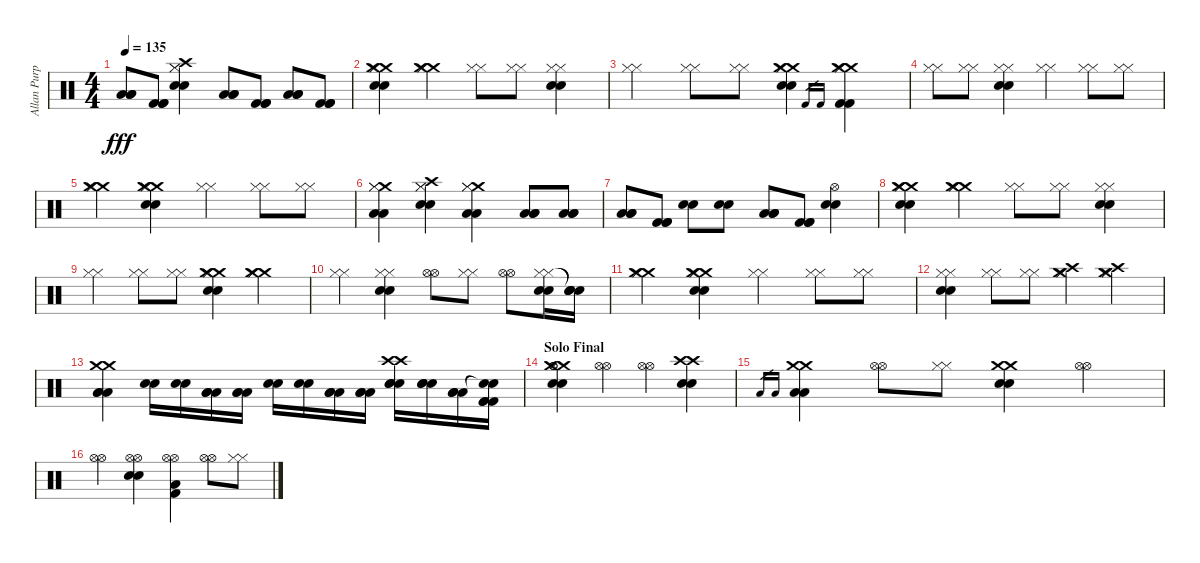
\track ("Allan Purple" "Allan Purp") {instrument percussion}
\staff {score}
\articulation defaults
\ts (4 4)
\tempo 135
\clef neutral
\ks c
("Low Tom (hit)" "Low Tom (hit)" "Low Tom (hit)").8{dy fff} ("Kick (hit) 2" "Kick (hit) 2" "Kick (hit) 2").8 ("Crash high (hit)" "Hi-Hat (closed)" "Hi-Hat (closed)" "Electric Snare (hit)" "Electric Snare (hit)").4 ("Low Tom (hit)" "Low Tom (hit)" "Low Tom (hit)").8 ("Kick (hit) 2" "Kick (hit) 2" "Kick (hit) 2").8 ("Low Tom (hit)" "Low Tom (hit)" "Low Tom (hit)").8 ("Kick (hit) 2" "Kick (hit) 2" "Kick (hit) 2").8 |
("Crash medium (hit)" "Crash medium (hit)" "Hi-Hat (closed)" "Hi-Hat (closed)" "Electric Snare (hit)" "Electric Snare (hit)").4 ("Crash medium (hit)" "Crash medium (hit)" "Hi-Hat (closed)" "Hi-Hat (closed)").4 ("Hi-Hat (closed)" "Hi-Hat (closed)").8 ("Hi-Hat (closed)" "Hi-Hat (closed)").8 ("Hi-Hat (closed)" "Hi-Hat (closed)" "Electric Snare (hit)" "Electric Snare (hit)").4 |
("Hi-Hat (closed)" "Hi-Hat (closed)").4 ("Hi-Hat (closed)" "Hi-Hat (closed)").8 ("Hi-Hat (closed)" "Hi-Hat (closed)").8 ("Crash medium (hit)" "Crash medium (hit)" "Hi-Hat (closed)" "Hi-Hat (closed)" "Electric Snare (hit)" "Electric Snare (hit)").4 "Kick (hit) 2".16{gr} "Kick (hit) 2".16{gr} ("Crash medium (hit)" "Crash medium (hit)" "Hi-Hat (closed)" "Hi-Hat (closed)" "Kick (hit) 2" "Kick (hit) 2").4 |
("Hi-Hat (closed)" "Hi-Hat (closed)").8 ("Hi-Hat (closed)" "Hi-Hat (closed)").8 ("Hi-Hat (closed)" "Hi-Hat (closed)" "Electric Snare (hit)" "Electric Snare (hit)").4 ("Hi-Hat (closed)" "Hi-Hat (closed)").4 ("Hi-Hat (closed)" "Hi-Hat (closed)").8 ("Hi-Hat (closed)" "Hi-Hat (closed)").8 |
("Crash medium (hit)" "Crash medium (hit)" "Hi-Hat (closed)" "Hi-Hat (closed)").4 ("Crash medium (hit)" "Crash medium (hit)" "Hi-Hat (closed)" "Hi-Hat (closed)" "Electric Snare (hit)" "Electric Snare (hit)").4 ("Hi-Hat (closed)" "Hi-Hat (closed)").4 ("Hi-Hat (closed)" "Hi-Hat (closed)").8 ("Hi-Hat (closed)" "Hi-Hat (closed)").8 |
("Crash medium (hit)" "Hi-Hat (closed)" "Hi-Hat (closed)" "Low Tom (hit)" "Low Tom (hit)").4 ("Crash high (hit)" "Hi-Hat (closed)" "Hi-Hat (closed)" "Electric Snare (hit)" "Electric Snare (hit)").4 ("Crash medium (hit)" "Hi-Hat (closed)" "Hi-Hat (closed)" "Low Tom (hit)" "Low Tom (hit)").4 ("Low Floor Tom (hit)" "Low Floor Tom (hit)" "Low Floor Tom (hit)").8 ("Low Floor Tom (hit)" "Low Floor Tom (hit)" "Low Floor Tom (hit)").8 |
("Low Tom (hit)" "Low Tom (hit)" "Low Tom (hit)").8 ("Kick (hit) 2" "Kick (hit) 2" "Kick (hit) 2").8 ("Electric Snare (hit)" "Electric Snare (hit)").8 ("Electric Snare (hit)" "Electric Snare (hit)").8 ("Low Tom (hit)" "Low Tom (hit)" "Low Tom (hit)").8 ("Kick (hit) 2" "Kick (hit) 2" "Kick (hit) 2").8 ("Hi-Hat (open)" "Electric Snare (hit)" "Electric Snare (hit)").4 |
("Crash medium (hit)" "Crash medium (hit)" "Hi-Hat (closed)" "Hi-Hat (closed)" "Electric Snare (hit)" "Electric Snare (hit)").4 ("Crash medium (hit)" "Crash medium (hit)" "Hi-Hat (closed)" "Hi-Hat (closed)").4 ("Hi-Hat (closed)" "Hi-Hat (closed)").8 ("Hi-Hat (closed)" "Hi-Hat (closed)").8 ("Hi-Hat (closed)" "Hi-Hat (closed)" "Electric Snare (hit)" "Electric Snare (hit)").4 |
("Hi-Hat (closed)" "Hi-Hat (closed)").4 ("Hi-Hat (closed)" "Hi-Hat (closed)").8 ("Hi-Hat (closed)" "Hi-Hat (closed)").8 ("Crash medium (hit)" "Crash medium (hit)" "Hi-Hat (closed)" "Hi-Hat (closed)" "Electric Snare (hit)" "Electric Snare (hit)").4 ("Crash medium (hit)" "Crash medium (hit)" "Hi-Hat (closed)" "Hi-Hat (closed)").4 |
("Hi-Hat (closed)" "Hi-Hat (closed)").4 ("Hi-Hat (closed)" "Hi-Hat (closed)" "Electric Snare (hit)" "Electric Snare (hit)").4 ("Hi-Hat (open)" "Hi-Hat (open)").8 ("Hi-Hat (closed)" "Hi-Hat (closed)").8 ("Hi-Hat (open)" "Hi-Hat (open)").8 ("Hi-Hat (closed)" "Hi-Hat (closed)" "Electric Snare (hit)" "Electric Snare (hit)").16 ("Snare (hit)"{t} "Snare (hit)"{t} "Electric Snare (hit)" "Electric Snare (hit)").16 |
("Crash medium (hit)" "Crash medium (hit)" "Hi-Hat (closed)" "Hi-Hat (closed)").4 ("Crash medium (hit)" "Crash medium (hit)" "Hi-Hat (closed)" "Hi-Hat (closed)" "Electric Snare (hit)" "Electric Snare (hit)").4 ("Hi-Hat (closed)" "Hi-Hat (closed)").4 ("Hi-Hat (closed)" "Hi-Hat (closed)").8 ("Hi-Hat (closed)" "Hi-Hat (closed)").8 |
("Hi-Hat (closed)" "Hi-Hat (closed)" "Electric Snare (hit)" "Electric Snare (hit)").4 ("Hi-Hat (closed)" "Hi-Hat (closed)").8 ("Hi-Hat (closed)" "Hi-Hat (closed)").8 ("Crash high (hit)" "Crash medium (hit)" "Hi-Hat (closed)" "Hi-Hat (closed)").4 ("Crash high (hit)" "Crash medium (hit)" "Hi-Hat (closed)" "Hi-Hat (closed)").4 |
("Crash medium (hit)" "Crash medium (hit)" "Low Tom (hit)" "Low Tom (hit)" "Low Tom (hit)").4 ("Electric Snare (hit)" "Electric Snare (hit)").16 ("Electric Snare (hit)" "Electric Snare (hit)").16 ("Low Tom (hit)" "Low Tom (hit)" "Low Tom (hit)").16 ("Low Tom (hit)" "Low Tom (hit)" "Low Tom (hit)").16 ("Electric Snare (hit)" "Electric Snare (hit)").16 ("Electric Snare (hit)" "Electric Snare (hit)").16 ("Low Tom (hit)" "Low Tom (hit)" "Low Tom (hit)").16 ("Low Tom (hit)" "Low Tom (hit)" "Low Tom (hit)").16 ("Crash high (hit)" "Crash high (hit)" "Electric Snare (hit)" "Electric Snare (hit)" "Electric Snare (hit)").16 ("Electric Snare (hit)" "Electric Snare (hit)" "Electric Snare (hit)").16 ("Low Tom (hit)" "Low Tom (hit)" "Low Tom (hit)").16 ("Snare (hit)"{t} "Snare (hit)"{t} "Kick (hit) 2" "Kick (hit) 2" "Kick (hit) 2").16 |
\section ("" "Solo Final")
("Crash medium (hit)" "Crash medium (hit)" "Hi-Hat (open)" "Hi-Hat (open)" "Electric Snare (hit)" "Electric Snare (hit)").4 ("Hi-Hat (open)" "Hi-Hat (open)").4 ("Hi-Hat (open)" "Hi-Hat (open)").4 ("Crash high (hit)" "Crash high (hit)" "Electric Snare (hit)" "Electric Snare (hit)").4 |
"Low Tom (hit)".16{gr} "Low Tom (hit)".16{gr} ("Crash medium (hit)" "Crash medium (hit)" "Low Tom (hit)" "Low Tom (hit)").4 ("Hi-Hat (open)" "Hi-Hat (open)").8 ("Hi-Hat (closed)" "Hi-Hat (closed)").8 ("Crash medium (hit)" "Crash medium (hit)" "Electric Snare (hit)" "Electric Snare (hit)").4 ("Hi-Hat (open)" "Hi-Hat (open)").4 |
("Hi-Hat (open)" "Hi-Hat (open)").4 ("Hi-Hat (open)" "Hi-Hat (open)" "Electric Snare (hit)" "Electric Snare (hit)").4 ("Hi-Hat (open)" "Hi-Hat (open)" "Kick (hit) 2" "Low Tom (hit)").4 ("Hi-Hat (open)" "Hi-Hat (open)").8 ("Hi-Hat (closed)" "Hi-Hat (closed)").8
